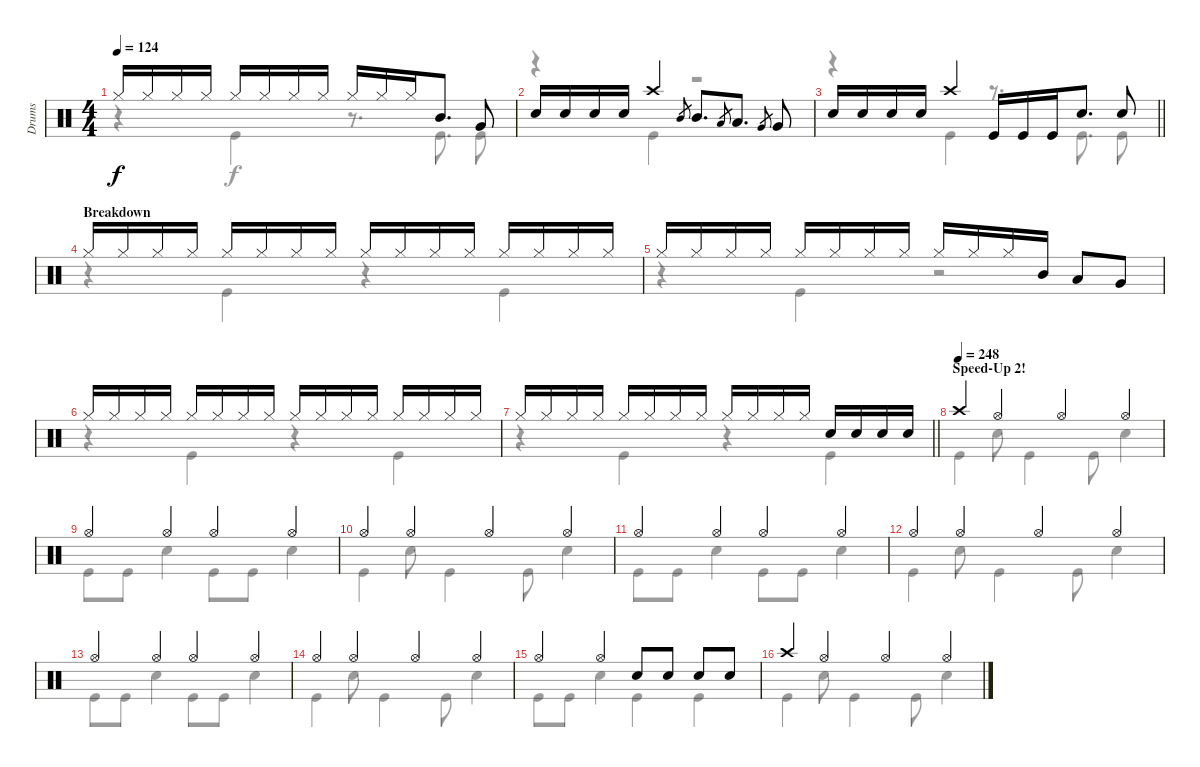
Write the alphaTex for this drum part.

\track ("Drums" "Drums") {instrument percussion}
\staff {score}
\articulation defaults
\voice
\ts (4 4)
\tempo 124
\clef neutral
\ks c "Hi-Hat (closed)".16{dy f} "Hi-Hat (closed)".16 "Hi-Hat (closed)".16 "Hi-Hat (closed)".16 "Hi-Hat (closed)".16 "Hi-Hat (closed)".16 "Hi-Hat (closed)".16 "Hi-Hat (closed)".16 "Hi-Hat (closed)".16 "Hi-Hat (closed)".16 "Hi-Hat (closed)".16 "Mid Tom (hit)".8{d} "Very Low Tom (hit)".8
|
"Electric Snare (hit)".16 "Electric Snare (hit)".16 "Electric Snare (hit)".16 "Electric Snare (hit)".16 "Crash high (hit)".4 "Mid Tom (hit)".8{gr} "Mid Tom (hit)".8{d} "Low Tom (hit)".8{gr} "Low Tom (hit)".8{d} "Very Low Tom (hit)".8{gr} "Very Low Tom (hit)".8 |
\barLineRight lightlight "Electric Snare (hit)".16 "Electric Snare (hit)".16 "Electric Snare (hit)".16 "Electric Snare (hit)".16 "Crash high (hit)".4 "Kick (hit)".16 "Kick (hit)".16 "Kick (hit)".16 "Electric Snare (hit)".8{d} "Electric Snare (hit)".8
|
\section ("" "Breakdown")
"Hi-Hat (closed)".16 "Hi-Hat (closed)".16 "Hi-Hat (closed)".16 "Hi-Hat (closed)".16 "Hi-Hat (closed)".16 "Hi-Hat (closed)".16 "Hi-Hat (closed)".16 "Hi-Hat (closed)".16 "Hi-Hat (closed)".16 "Hi-Hat (closed)".16 "Hi-Hat (closed)".16 "Hi-Hat (closed)".16 "Hi-Hat (closed)".16 "Hi-Hat (closed)".16 "Hi-Hat (closed)".16 "Hi-Hat (closed)".16 |
"Hi-Hat (closed)".16 "Hi-Hat (closed)".16 "Hi-Hat (closed)".16 "Hi-Hat (closed)".16 "Hi-Hat (closed)".16 "Hi-Hat (closed)".16 "Hi-Hat (closed)".16 "Hi-Hat (closed)".16 "Hi-Hat (closed)".16 "Hi-Hat (closed)".16 "Hi-Hat (closed)".16 "Mid Tom (hit)".16 "Low Tom (hit)".8 "Very Low Tom (hit)".8 |
"Hi-Hat (closed)".16 "Hi-Hat (closed)".16 "Hi-Hat (closed)".16 "Hi-Hat (closed)".16 "Hi-Hat (closed)".16 "Hi-Hat (closed)".16 "Hi-Hat (closed)".16 "Hi-Hat (closed)".16 "Hi-Hat (closed)".16 "Hi-Hat (closed)".16 "Hi-Hat (closed)".16 "Hi-Hat (closed)".16 "Hi-Hat (closed)".16 "Hi-Hat (closed)".16 "Hi-Hat (closed)".16 "Hi-Hat (closed)".16 |
\barLineRight lightlight "Hi-Hat (closed)".16 "Hi-Hat (closed)".16 "Hi-Hat (closed)".16 "Hi-Hat (closed)".16 "Hi-Hat (closed)".16 "Hi-Hat (closed)".16 "Hi-Hat (closed)".16 "Hi-Hat (closed)".16 "Hi-Hat (closed)".16 "Hi-Hat (closed)".16 "Hi-Hat (closed)".16 "Hi-Hat (closed)".16 "Electric Snare (hit)".16 "Electric Snare (hit)".16 "Electric Snare (hit)".16 "Electric Snare (hit)".16
|
\section ("" "Speed-Up 2!")
\tempo (248)
"Crash high (hit)".4 "Hi-Hat (open)".4 "Hi-Hat (open)".4 "Hi-Hat (open)".4 |
"Hi-Hat (open)".4 "Hi-Hat (open)".4 "Hi-Hat (open)".4 "Hi-Hat (open)".4 |
"Hi-Hat (open)".4 "Hi-Hat (open)".4 "Hi-Hat (open)".4 "Hi-Hat (open)".4 |
"Hi-Hat (open)".4 "Hi-Hat (open)".4 "Hi-Hat (open)".4 "Hi-Hat (open)".4 |
"Hi-Hat (open)".4 "Hi-Hat (open)".4 "Hi-Hat (open)".4 "Hi-Hat (open)".4 |
"Hi-Hat (open)".4 "Hi-Hat (open)".4 "Hi-Hat (open)".4 "Hi-Hat (open)".4 |
"Hi-Hat (open)".4 "Hi-Hat (open)".4 "Hi-Hat (open)".4 "Hi-Hat (open)".4 |
"Hi-Hat (open)".4 "Hi-Hat (open)".4 "Electric Snare (hit)".8 "Electric Snare (hit)".8 "Electric Snare (hit)".8 "Electric Snare (hit)".8 |
"Crash high (hit)".4 "Hi-Hat (open)".4 "Hi-Hat (open)".4 "Hi-Hat (open)".4
\voice
\clef neutral
\ottava regular
\simile none
\ks c
r.4{dy f} "Kick (hit)".4 r.8{d} "Kick (hit)".8{d} "Kick (hit)".8 |
r.4 "Kick (hit)".4 r.2 |
\barLineRight lightlight
r.4 "Kick (hit)".4 r.8{d} "Kick (hit)".8{d} "Kick (hit)".8 |
r.4 "Kick (hit)".4 r.4 "Kick (hit)".4 |
r.4 "Kick (hit)".4 r.2 |
r.4 "Kick (hit)".4 r.4 "Kick (hit)".4 |
\barLineRight lightlight
r.4 "Kick (hit)".4 r.4 "Kick (hit)".4 |
"Kick (hit)".4 "Electric Snare (hit)".8 "Kick (hit)".4 "Kick (hit)".8 "Electric Snare (hit)".4 |
"Kick (hit)".8 "Kick (hit)".8 "Electric Snare (hit)".4 "Kick (hit)".8 "Kick (hit)".8 "Electric Snare (hit)".4 |
"Kick (hit)".4 "Electric Snare (hit)".8 "Kick (hit)".4 "Kick (hit)".8 "Electric Snare (hit)".4 |
"Kick (hit)".8 "Kick (hit)".8 "Electric Snare (hit)".4 "Kick (hit)".8 "Kick (hit)".8 "Electric Snare (hit)".4 |
"Kick (hit)".4 "Electric Snare (hit)".8 "Kick (hit)".4 "Kick (hit)".8 "Electric Snare (hit)".4 |
"Kick (hit)".8 "Kick (hit)".8 "Electric Snare (hit)".4 "Kick (hit)".8 "Kick (hit)".8 "Electric Snare (hit)".4 |
"Kick (hit)".4 "Electric Snare (hit)".8 "Kick (hit)".4 "Kick (hit)".8 "Electric Snare (hit)".4 |
"Kick (hit)".8 "Kick (hit)".8 "Electric Snare (hit)".4 "Kick (hit)".4 "Kick (hit)".4 |
"Kick (hit)".4 "Electric Snare (hit)".8 "Kick (hit)".4 "Kick (hit)".8 "Electric Snare (hit)".4
